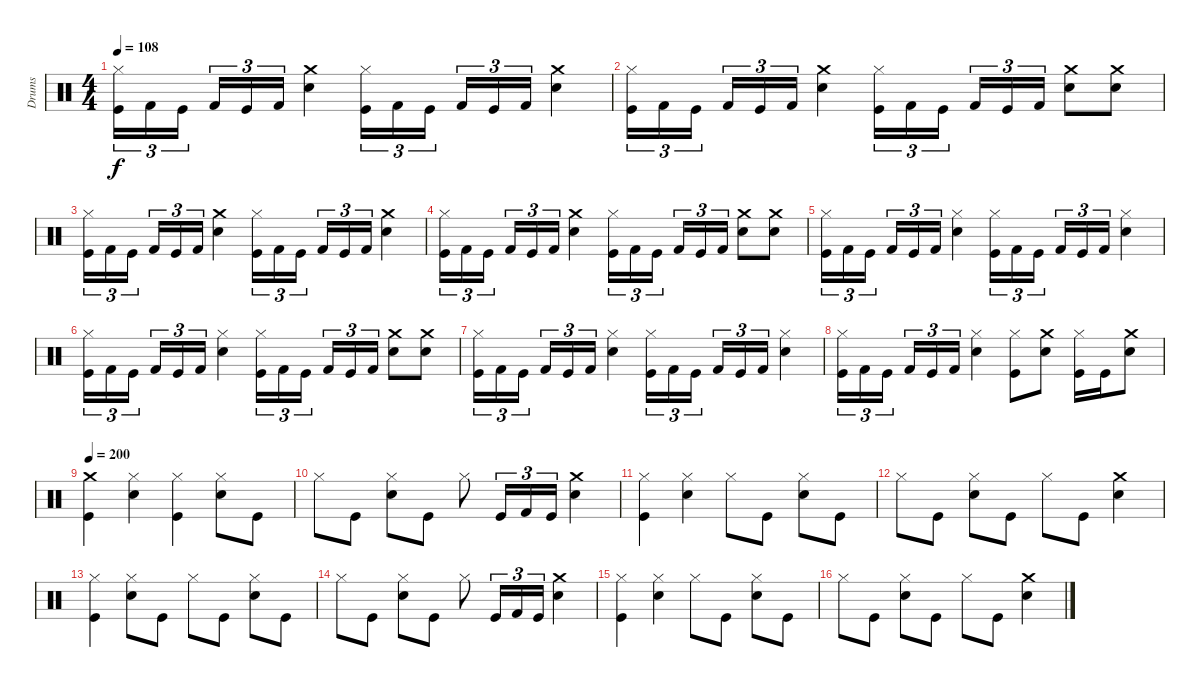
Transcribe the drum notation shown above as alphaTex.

\track ("Drums" "Drums") {instrument percussion}
\staff {score}
\articulation defaults
\ts (4 4)
\tempo 108
\clef neutral
\ks c
("Hi-Hat (closed)" "Kick (hit)").16{tu (3 2) dy f} "Kick (hit) 2".16{tu (3 2)} "Kick (hit)".16{tu (3 2)} "Kick (hit) 2".16{tu (3 2)} "Kick (hit)".16{tu (3 2)} "Kick (hit) 2".16{tu (3 2)} ("Crash medium (hit)" "Snare (hit) 2").4 ("Hi-Hat (closed)" "Kick (hit)").16{tu (3 2)} "Kick (hit) 2".16{tu (3 2)} "Kick (hit)".16{tu (3 2)} "Kick (hit) 2".16{tu (3 2)} "Kick (hit)".16{tu (3 2)} "Kick (hit) 2".16{tu (3 2)} ("Crash medium (hit)" "Snare (hit) 2").4 |
("Hi-Hat (closed)" "Kick (hit)").16{tu (3 2)} "Kick (hit) 2".16{tu (3 2)} "Kick (hit)".16{tu (3 2)} "Kick (hit) 2".16{tu (3 2)} "Kick (hit)".16{tu (3 2)} "Kick (hit) 2".16{tu (3 2)} ("Crash medium (hit)" "Snare (hit) 2").4 ("Hi-Hat (closed)" "Kick (hit)").16{tu (3 2)} "Kick (hit) 2".16{tu (3 2)} "Kick (hit)".16{tu (3 2)} "Kick (hit) 2".16{tu (3 2)} "Kick (hit)".16{tu (3 2)} "Kick (hit) 2".16{tu (3 2)} ("Snare (hit) 2" "Crash medium (hit)").8 ("Snare (hit) 2" "Crash medium (hit)").8 |
("Hi-Hat (closed)" "Kick (hit)").16{tu (3 2)} "Kick (hit) 2".16{tu (3 2)} "Kick (hit)".16{tu (3 2)} "Kick (hit) 2".16{tu (3 2)} "Kick (hit)".16{tu (3 2)} "Kick (hit) 2".16{tu (3 2)} ("Crash medium (hit)" "Snare (hit) 2").4 ("Hi-Hat (closed)" "Kick (hit)").16{tu (3 2)} "Kick (hit) 2".16{tu (3 2)} "Kick (hit)".16{tu (3 2)} "Kick (hit) 2".16{tu (3 2)} "Kick (hit)".16{tu (3 2)} "Kick (hit) 2".16{tu (3 2)} ("Crash medium (hit)" "Snare (hit) 2").4 |
("Hi-Hat (closed)" "Kick (hit)").16{tu (3 2)} "Kick (hit) 2".16{tu (3 2)} "Kick (hit)".16{tu (3 2)} "Kick (hit) 2".16{tu (3 2)} "Kick (hit)".16{tu (3 2)} "Kick (hit) 2".16{tu (3 2)} ("Crash medium (hit)" "Snare (hit) 2").4 ("Hi-Hat (closed)" "Kick (hit)").16{tu (3 2)} "Kick (hit) 2".16{tu (3 2)} "Kick (hit)".16{tu (3 2)} "Kick (hit) 2".16{tu (3 2)} "Kick (hit)".16{tu (3 2)} "Kick (hit) 2".16{tu (3 2)} ("Snare (hit) 2" "Crash medium (hit)").8 ("Snare (hit) 2" "Crash medium (hit)").8 |
("Hi-Hat (closed)" "Kick (hit)").16{tu (3 2)} "Kick (hit) 2".16{tu (3 2)} "Kick (hit)".16{tu (3 2)} "Kick (hit) 2".16{tu (3 2)} "Kick (hit)".16{tu (3 2)} "Kick (hit) 2".16{tu (3 2)} ("Snare (hit) 2" "Hi-Hat (closed)").4 ("Hi-Hat (closed)" "Kick (hit)").16{tu (3 2)} "Kick (hit) 2".16{tu (3 2)} "Kick (hit)".16{tu (3 2)} "Kick (hit) 2".16{tu (3 2)} "Kick (hit)".16{tu (3 2)} "Kick (hit) 2".16{tu (3 2)} ("Snare (hit) 2" "Hi-Hat (closed)").4 |
("Hi-Hat (closed)" "Kick (hit)").16{tu (3 2)} "Kick (hit) 2".16{tu (3 2)} "Kick (hit)".16{tu (3 2)} "Kick (hit) 2".16{tu (3 2)} "Kick (hit)".16{tu (3 2)} "Kick (hit) 2".16{tu (3 2)} ("Snare (hit) 2" "Hi-Hat (closed)").4 ("Hi-Hat (closed)" "Kick (hit)").16{tu (3 2)} "Kick (hit) 2".16{tu (3 2)} "Kick (hit)".16{tu (3 2)} "Kick (hit) 2".16{tu (3 2)} "Kick (hit)".16{tu (3 2)} "Kick (hit) 2".16{tu (3 2)} ("Snare (hit) 2" "Crash medium (hit)").8 ("Snare (hit) 2" "Crash medium (hit)").8 |
("Hi-Hat (closed)" "Kick (hit)").16{tu (3 2)} "Kick (hit) 2".16{tu (3 2)} "Kick (hit)".16{tu (3 2)} "Kick (hit) 2".16{tu (3 2)} "Kick (hit)".16{tu (3 2)} "Kick (hit) 2".16{tu (3 2)} ("Snare (hit) 2" "Hi-Hat (closed)").4 ("Hi-Hat (closed)" "Kick (hit)").16{tu (3 2)} "Kick (hit) 2".16{tu (3 2)} "Kick (hit)".16{tu (3 2)} "Kick (hit) 2".16{tu (3 2)} "Kick (hit)".16{tu (3 2)} "Kick (hit) 2".16{tu (3 2)} ("Snare (hit) 2" "Hi-Hat (closed)").4 |
("Hi-Hat (closed)" "Kick (hit)").16{tu (3 2)} "Kick (hit) 2".16{tu (3 2)} "Kick (hit)".16{tu (3 2)} "Kick (hit) 2".16{tu (3 2)} "Kick (hit)".16{tu (3 2)} "Kick (hit) 2".16{tu (3 2)} ("Snare (hit) 2" "Hi-Hat (closed)").4 ("Kick (hit)" "Hi-Hat (closed)").8 ("Snare (hit) 2" "Crash medium (hit)").8 ("Kick (hit)" "Hi-Hat (closed)").16 "Kick (hit)".16 ("Crash medium (hit)" "Snare (hit) 2").8 |
\tempo 200
("Kick (hit)" "Crash medium (hit)").4 ("Hi-Hat (closed)" "Snare (hit) 2").4 ("Kick (hit)" "Hi-Hat (closed)").4 ("Hi-Hat (closed)" "Snare (hit) 2").8 "Kick (hit)".8 |
"Hi-Hat (closed)".8 "Kick (hit)".8 ("Snare (hit) 2" "Hi-Hat (closed)").8 "Kick (hit)".8 "Hi-Hat (closed)".8 "Kick (hit)".16{tu (3 2)} "Kick (hit) 2".16{tu (3 2)} "Kick (hit)".16{tu (3 2)} ("Crash medium (hit)" "Snare (hit) 2").4 |
("Hi-Hat (closed)" "Kick (hit)").4 ("Snare (hit) 2" "Hi-Hat (closed)").4 "Hi-Hat (closed)".8 "Kick (hit)".8 ("Snare (hit) 2" "Hi-Hat (closed)").8 "Kick (hit)".8 |
"Hi-Hat (closed)".8 "Kick (hit)".8 ("Snare (hit) 2" "Hi-Hat (closed)").8 "Kick (hit)".8 "Hi-Hat (closed)".8 "Kick (hit)".8 ("Crash medium (hit)" "Snare (hit) 2").4 |
("Kick (hit)" "Hi-Hat (closed)").4 ("Snare (hit) 2" "Hi-Hat (closed)").8 "Kick (hit)".8 "Hi-Hat (closed)".8 "Kick (hit)".8 ("Hi-Hat (closed)" "Snare (hit) 2").8 "Kick (hit)".8 |
"Hi-Hat (closed)".8 "Kick (hit)".8 ("Snare (hit) 2" "Hi-Hat (closed)").8 "Kick (hit)".8 "Hi-Hat (closed)".8 "Kick (hit)".16{tu (3 2)} "Kick (hit) 2".16{tu (3 2)} "Kick (hit)".16{tu (3 2)} ("Crash medium (hit)" "Snare (hit) 2").4 |
("Hi-Hat (closed)" "Kick (hit)").4 ("Snare (hit) 2" "Hi-Hat (closed)").4 "Hi-Hat (closed)".8 "Kick (hit)".8 ("Snare (hit) 2" "Hi-Hat (closed)").8 "Kick (hit)".8 |
"Hi-Hat (closed)".8 "Kick (hit)".8 ("Snare (hit) 2" "Hi-Hat (closed)").8 "Kick (hit)".8 "Hi-Hat (closed)".8 "Kick (hit)".8 ("Crash medium (hit)" "Snare (hit) 2").4
